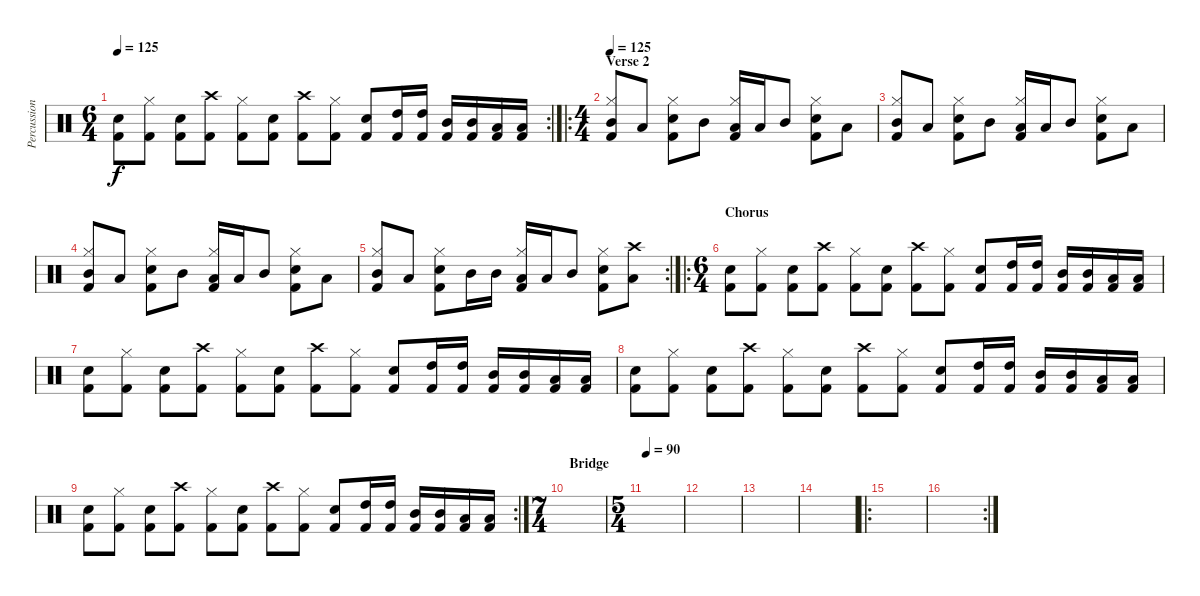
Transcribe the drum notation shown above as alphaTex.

\track ("Percussion" "Percussion") {instrument percussion}
\staff {score}
\articulation defaults
\rc 2
\ts (6 4)
\tempo 125
\clef neutral
\ks c
("Electric Snare (hit)" "Kick (hit) 2").8{dy f} ("Hi-Hat (closed)" "Kick (hit) 2").8 ("Electric Snare (hit)" "Kick (hit) 2").8 ("Crash high (hit)" "Kick (hit) 2").8 ("Hi-Hat (closed)" "Kick (hit) 2").8 ("Electric Snare (hit)" "Kick (hit) 2").8 ("Crash high (hit)" "Kick (hit) 2").8 ("Hi-Hat (closed)" "Kick (hit) 2").8 ("Electric Snare (hit)" "Kick (hit) 2").8 ("High Tom (hit)" "Kick (hit) 2").16 ("High Tom (hit)" "Kick (hit) 2").16 ("Mid Tom (hit)" "Kick (hit) 2").16 ("Mid Tom (hit)" "Kick (hit) 2").16 ("Low Tom (hit)" "Kick (hit) 2").16 ("Low Tom (hit)" "Kick (hit) 2").16 |
\ro
\ts (4 4)
\section ("" "Verse 2")
\tempo 125
("Hi-Hat (closed)" "Mid Tom (hit)" "Kick (hit) 2").8{volume 14} "Low Tom (hit)".8 ("Hi-Hat (closed)" "Electric Snare (hit)" "Kick (hit) 2").8 "Mid Tom (hit)".8 ("Hi-Hat (closed)" "Low Tom (hit)" "Kick (hit) 2").16 "Low Tom (hit)".16 "Mid Tom (hit)".8 ("Hi-Hat (closed)" "Electric Snare (hit)" "Kick (hit) 2").8 "Low Tom (hit)".8 |
("Hi-Hat (closed)" "Mid Tom (hit)" "Kick (hit) 2").8 "Low Tom (hit)".8 ("Hi-Hat (closed)" "Electric Snare (hit)" "Kick (hit) 2").8 "Mid Tom (hit)".8 ("Hi-Hat (closed)" "Low Tom (hit)" "Kick (hit) 2").16 "Low Tom (hit)".16 "Mid Tom (hit)".8 ("Hi-Hat (closed)" "Electric Snare (hit)" "Kick (hit) 2").8 "Low Tom (hit)".8 |
("Hi-Hat (closed)" "Mid Tom (hit)" "Kick (hit) 2").8 "Low Tom (hit)".8 ("Hi-Hat (closed)" "Electric Snare (hit)" "Kick (hit) 2").8 "Mid Tom (hit)".8 ("Hi-Hat (closed)" "Low Tom (hit)" "Kick (hit) 2").16 "Low Tom (hit)".16 "Mid Tom (hit)".8 ("Hi-Hat (closed)" "Electric Snare (hit)" "Kick (hit) 2").8 "Low Tom (hit)".8 |
\rc 2
("Hi-Hat (closed)" "Mid Tom (hit)" "Kick (hit) 2").8 "Low Tom (hit)".8 ("Hi-Hat (closed)" "Electric Snare (hit)" "Kick (hit) 2").8 "Mid Tom (hit)".16 "Mid Tom (hit)".16 ("Hi-Hat (closed)" "Low Tom (hit)" "Kick (hit) 2").16 "Low Tom (hit)".16 "Mid Tom (hit)".8 ("Hi-Hat (closed)" "Electric Snare (hit)" "Kick (hit) 2").8 ("Crash high (hit)" "Low Tom (hit)").8 |
\ro
\ts (6 4)
\section ("" "Chorus")
("Electric Snare (hit)" "Kick (hit) 2").8{volume 12} ("Hi-Hat (closed)" "Kick (hit) 2").8 ("Electric Snare (hit)" "Kick (hit) 2").8 ("Crash high (hit)" "Kick (hit) 2").8 ("Hi-Hat (closed)" "Kick (hit) 2").8 ("Electric Snare (hit)" "Kick (hit) 2").8 ("Crash high (hit)" "Kick (hit) 2").8 ("Hi-Hat (closed)" "Kick (hit) 2").8 ("Electric Snare (hit)" "Kick (hit) 2").8 ("High Tom (hit)" "Kick (hit) 2").16 ("High Tom (hit)" "Kick (hit) 2").16 ("Mid Tom (hit)" "Kick (hit) 2").16 ("Mid Tom (hit)" "Kick (hit) 2").16 ("Low Tom (hit)" "Kick (hit) 2").16 ("Low Tom (hit)" "Kick (hit) 2").16 |
("Electric Snare (hit)" "Kick (hit) 2").8 ("Hi-Hat (closed)" "Kick (hit) 2").8 ("Electric Snare (hit)" "Kick (hit) 2").8 ("Crash high (hit)" "Kick (hit) 2").8 ("Hi-Hat (closed)" "Kick (hit) 2").8 ("Electric Snare (hit)" "Kick (hit) 2").8 ("Crash high (hit)" "Kick (hit) 2").8 ("Hi-Hat (closed)" "Kick (hit) 2").8 ("Electric Snare (hit)" "Kick (hit) 2").8 ("High Tom (hit)" "Kick (hit) 2").16 ("High Tom (hit)" "Kick (hit) 2").16 ("Mid Tom (hit)" "Kick (hit) 2").16 ("Mid Tom (hit)" "Kick (hit) 2").16 ("Low Tom (hit)" "Kick (hit) 2").16 ("Low Tom (hit)" "Kick (hit) 2").16 |
("Electric Snare (hit)" "Kick (hit) 2").8 ("Hi-Hat (closed)" "Kick (hit) 2").8 ("Electric Snare (hit)" "Kick (hit) 2").8 ("Crash high (hit)" "Kick (hit) 2").8 ("Hi-Hat (closed)" "Kick (hit) 2").8 ("Electric Snare (hit)" "Kick (hit) 2").8 ("Crash high (hit)" "Kick (hit) 2").8 ("Hi-Hat (closed)" "Kick (hit) 2").8 ("Electric Snare (hit)" "Kick (hit) 2").8 ("High Tom (hit)" "Kick (hit) 2").16 ("High Tom (hit)" "Kick (hit) 2").16 ("Mid Tom (hit)" "Kick (hit) 2").16 ("Mid Tom (hit)" "Kick (hit) 2").16 ("Low Tom (hit)" "Kick (hit) 2").16 ("Low Tom (hit)" "Kick (hit) 2").16 |
\rc 2
("Electric Snare (hit)" "Kick (hit) 2").8 ("Hi-Hat (closed)" "Kick (hit) 2").8 ("Electric Snare (hit)" "Kick (hit) 2").8 ("Crash high (hit)" "Kick (hit) 2").8 ("Hi-Hat (closed)" "Kick (hit) 2").8 ("Electric Snare (hit)" "Kick (hit) 2").8 ("Crash high (hit)" "Kick (hit) 2").8 ("Hi-Hat (closed)" "Kick (hit) 2").8 ("Electric Snare (hit)" "Kick (hit) 2").8 ("High Tom (hit)" "Kick (hit) 2").16 ("High Tom (hit)" "Kick (hit) 2").16 ("Mid Tom (hit)" "Kick (hit) 2").16 ("Mid Tom (hit)" "Kick (hit) 2").16 ("Low Tom (hit)" "Kick (hit) 2").16 ("Low Tom (hit)" "Kick (hit) 2").16 |
\ts (7 4)
\section ("" "Bridge")
|
\ts (5 4)
\tempo 90
|
|
|
|
\ro
|
\rc 2
